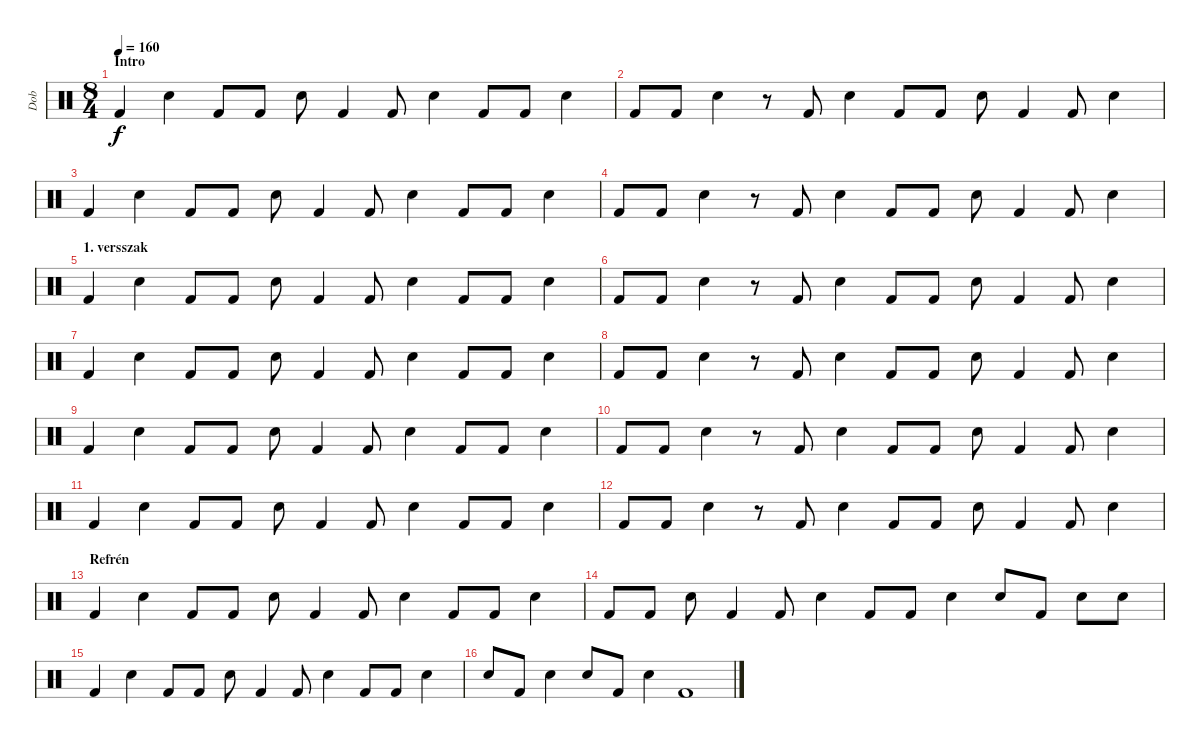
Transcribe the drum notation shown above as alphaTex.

\track ("Dob" "Dob") {instrument percussion}
\staff {score}
\articulation defaults
\ts (8 4)
\section ("" "Intro")
\tempo 160
\clef neutral
\ks c "Kick (hit) 2".4{dy f} "Snare (hit) 2".4 "Kick (hit) 2".8 "Kick (hit) 2".8 "Snare (hit) 2".8 "Kick (hit) 2".4 "Kick (hit) 2".8 "Snare (hit) 2".4 "Kick (hit) 2".8 "Kick (hit) 2".8 "Snare (hit) 2".4
|
"Kick (hit) 2".8 "Kick (hit) 2".8 "Snare (hit) 2".4 r.8 "Kick (hit) 2".8 "Snare (hit) 2".4 "Kick (hit) 2".8 "Kick (hit) 2".8 "Snare (hit) 2".8 "Kick (hit) 2".4 "Kick (hit) 2".8 "Snare (hit) 2".4 |
"Kick (hit) 2".4 "Snare (hit) 2".4 "Kick (hit) 2".8 "Kick (hit) 2".8 "Snare (hit) 2".8 "Kick (hit) 2".4 "Kick (hit) 2".8 "Snare (hit) 2".4 "Kick (hit) 2".8 "Kick (hit) 2".8 "Snare (hit) 2".4 |
"Kick (hit) 2".8 "Kick (hit) 2".8 "Snare (hit) 2".4 r.8 "Kick (hit) 2".8 "Snare (hit) 2".4 "Kick (hit) 2".8 "Kick (hit) 2".8 "Snare (hit) 2".8 "Kick (hit) 2".4 "Kick (hit) 2".8 "Snare (hit) 2".4 |
\section ("" "1. versszak")
"Kick (hit) 2".4 "Snare (hit) 2".4 "Kick (hit) 2".8 "Kick (hit) 2".8 "Snare (hit) 2".8 "Kick (hit) 2".4 "Kick (hit) 2".8 "Snare (hit) 2".4 "Kick (hit) 2".8 "Kick (hit) 2".8 "Snare (hit) 2".4 |
"Kick (hit) 2".8 "Kick (hit) 2".8 "Snare (hit) 2".4 r.8 "Kick (hit) 2".8 "Snare (hit) 2".4 "Kick (hit) 2".8 "Kick (hit) 2".8 "Snare (hit) 2".8 "Kick (hit) 2".4 "Kick (hit) 2".8 "Snare (hit) 2".4 |
"Kick (hit) 2".4 "Snare (hit) 2".4 "Kick (hit) 2".8 "Kick (hit) 2".8 "Snare (hit) 2".8 "Kick (hit) 2".4 "Kick (hit) 2".8 "Snare (hit) 2".4 "Kick (hit) 2".8 "Kick (hit) 2".8 "Snare (hit) 2".4 |
"Kick (hit) 2".8 "Kick (hit) 2".8 "Snare (hit) 2".4 r.8 "Kick (hit) 2".8 "Snare (hit) 2".4 "Kick (hit) 2".8 "Kick (hit) 2".8 "Snare (hit) 2".8 "Kick (hit) 2".4 "Kick (hit) 2".8 "Snare (hit) 2".4 |
"Kick (hit) 2".4 "Snare (hit) 2".4 "Kick (hit) 2".8 "Kick (hit) 2".8 "Snare (hit) 2".8 "Kick (hit) 2".4 "Kick (hit) 2".8 "Snare (hit) 2".4 "Kick (hit) 2".8 "Kick (hit) 2".8 "Snare (hit) 2".4 |
"Kick (hit) 2".8 "Kick (hit) 2".8 "Snare (hit) 2".4 r.8 "Kick (hit) 2".8 "Snare (hit) 2".4 "Kick (hit) 2".8 "Kick (hit) 2".8 "Snare (hit) 2".8 "Kick (hit) 2".4 "Kick (hit) 2".8 "Snare (hit) 2".4 |
"Kick (hit) 2".4 "Snare (hit) 2".4 "Kick (hit) 2".8 "Kick (hit) 2".8 "Snare (hit) 2".8 "Kick (hit) 2".4 "Kick (hit) 2".8 "Snare (hit) 2".4 "Kick (hit) 2".8 "Kick (hit) 2".8 "Snare (hit) 2".4 |
"Kick (hit) 2".8 "Kick (hit) 2".8 "Snare (hit) 2".4 r.8 "Kick (hit) 2".8 "Snare (hit) 2".4 "Kick (hit) 2".8 "Kick (hit) 2".8 "Snare (hit) 2".8 "Kick (hit) 2".4 "Kick (hit) 2".8 "Snare (hit) 2".4 |
\section ("" "Refrén")
"Kick (hit) 2".4 "Snare (hit) 2".4 "Kick (hit) 2".8 "Kick (hit) 2".8 "Snare (hit) 2".8 "Kick (hit) 2".4 "Kick (hit) 2".8 "Snare (hit) 2".4 "Kick (hit) 2".8 "Kick (hit) 2".8 "Snare (hit) 2".4 |
"Kick (hit) 2".8 "Kick (hit) 2".8 "Snare (hit) 2".8 "Kick (hit) 2".4 "Kick (hit) 2".8 "Snare (hit) 2".4 "Kick (hit) 2".8 "Kick (hit) 2".8 "Snare (hit) 2".4 "Snare (hit) 2".8 "Kick (hit) 2".8 "Snare (hit) 2".8 "Snare (hit) 2".8 |
"Kick (hit) 2".4 "Snare (hit) 2".4 "Kick (hit) 2".8 "Kick (hit) 2".8 "Snare (hit) 2".8 "Kick (hit) 2".4 "Kick (hit) 2".8 "Snare (hit) 2".4 "Kick (hit) 2".8 "Kick (hit) 2".8 "Snare (hit) 2".4 |
"Snare (hit) 2".8 "Kick (hit) 2".8 "Snare (hit) 2".4 "Snare (hit) 2".8 "Kick (hit) 2".8 "Snare (hit) 2".4 "Kick (hit) 2".1
